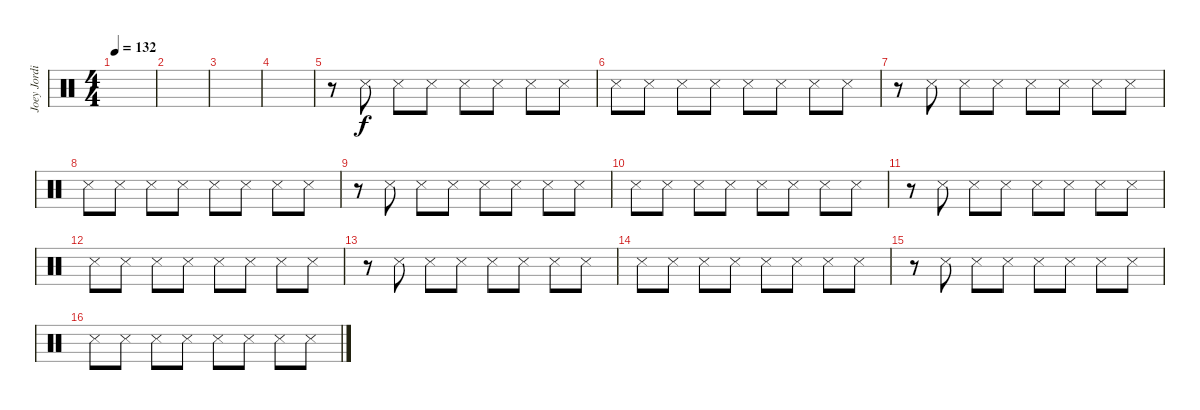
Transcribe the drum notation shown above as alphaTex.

\track ("Joey Jordison (Intro)" "Joey Jordi") {instrument percussion}
\staff {score}
\articulation defaults
\ts (4 4)
\tempo 132
\clef neutral
\ks c
|
|
|
|
r.8 "Snare (side stick) 3".8 "Snare (side stick) 3".8 "Snare (side stick) 3".8 "Snare (side stick) 3".8 "Snare (side stick) 3".8 "Snare (side stick) 3".8 "Snare (side stick) 3".8 |
"Snare (side stick) 3".8 "Snare (side stick) 3".8 "Snare (side stick) 3".8 "Snare (side stick) 3".8 "Snare (side stick) 3".8 "Snare (side stick) 3".8 "Snare (side stick) 3".8 "Snare (side stick) 3".8 |
r.8 "Snare (side stick) 3".8 "Snare (side stick) 3".8 "Snare (side stick) 3".8 "Snare (side stick) 3".8 "Snare (side stick) 3".8 "Snare (side stick) 3".8 "Snare (side stick) 3".8 |
"Snare (side stick) 3".8 "Snare (side stick) 3".8 "Snare (side stick) 3".8 "Snare (side stick) 3".8 "Snare (side stick) 3".8 "Snare (side stick) 3".8 "Snare (side stick) 3".8 "Snare (side stick) 3".8 |
r.8 "Snare (side stick) 3".8 "Snare (side stick) 3".8 "Snare (side stick) 3".8 "Snare (side stick) 3".8 "Snare (side stick) 3".8 "Snare (side stick) 3".8 "Snare (side stick) 3".8 |
"Snare (side stick) 3".8 "Snare (side stick) 3".8 "Snare (side stick) 3".8 "Snare (side stick) 3".8 "Snare (side stick) 3".8 "Snare (side stick) 3".8 "Snare (side stick) 3".8 "Snare (side stick) 3".8 |
r.8 "Snare (side stick) 3".8 "Snare (side stick) 3".8 "Snare (side stick) 3".8 "Snare (side stick) 3".8 "Snare (side stick) 3".8 "Snare (side stick) 3".8 "Snare (side stick) 3".8 |
"Snare (side stick) 3".8 "Snare (side stick) 3".8 "Snare (side stick) 3".8 "Snare (side stick) 3".8 "Snare (side stick) 3".8 "Snare (side stick) 3".8 "Snare (side stick) 3".8 "Snare (side stick) 3".8 |
r.8 "Snare (side stick) 3".8 "Snare (side stick) 3".8 "Snare (side stick) 3".8 "Snare (side stick) 3".8 "Snare (side stick) 3".8 "Snare (side stick) 3".8 "Snare (side stick) 3".8 |
"Snare (side stick) 3".8 "Snare (side stick) 3".8 "Snare (side stick) 3".8 "Snare (side stick) 3".8 "Snare (side stick) 3".8 "Snare (side stick) 3".8 "Snare (side stick) 3".8 "Snare (side stick) 3".8 |
r.8 "Snare (side stick) 3".8 "Snare (side stick) 3".8 "Snare (side stick) 3".8 "Snare (side stick) 3".8 "Snare (side stick) 3".8 "Snare (side stick) 3".8 "Snare (side stick) 3".8 |
"Snare (side stick) 3".8 "Snare (side stick) 3".8 "Snare (side stick) 3".8 "Snare (side stick) 3".8 "Snare (side stick) 3".8 "Snare (side stick) 3".8 "Snare (side stick) 3".8 "Snare (side stick) 3".8
